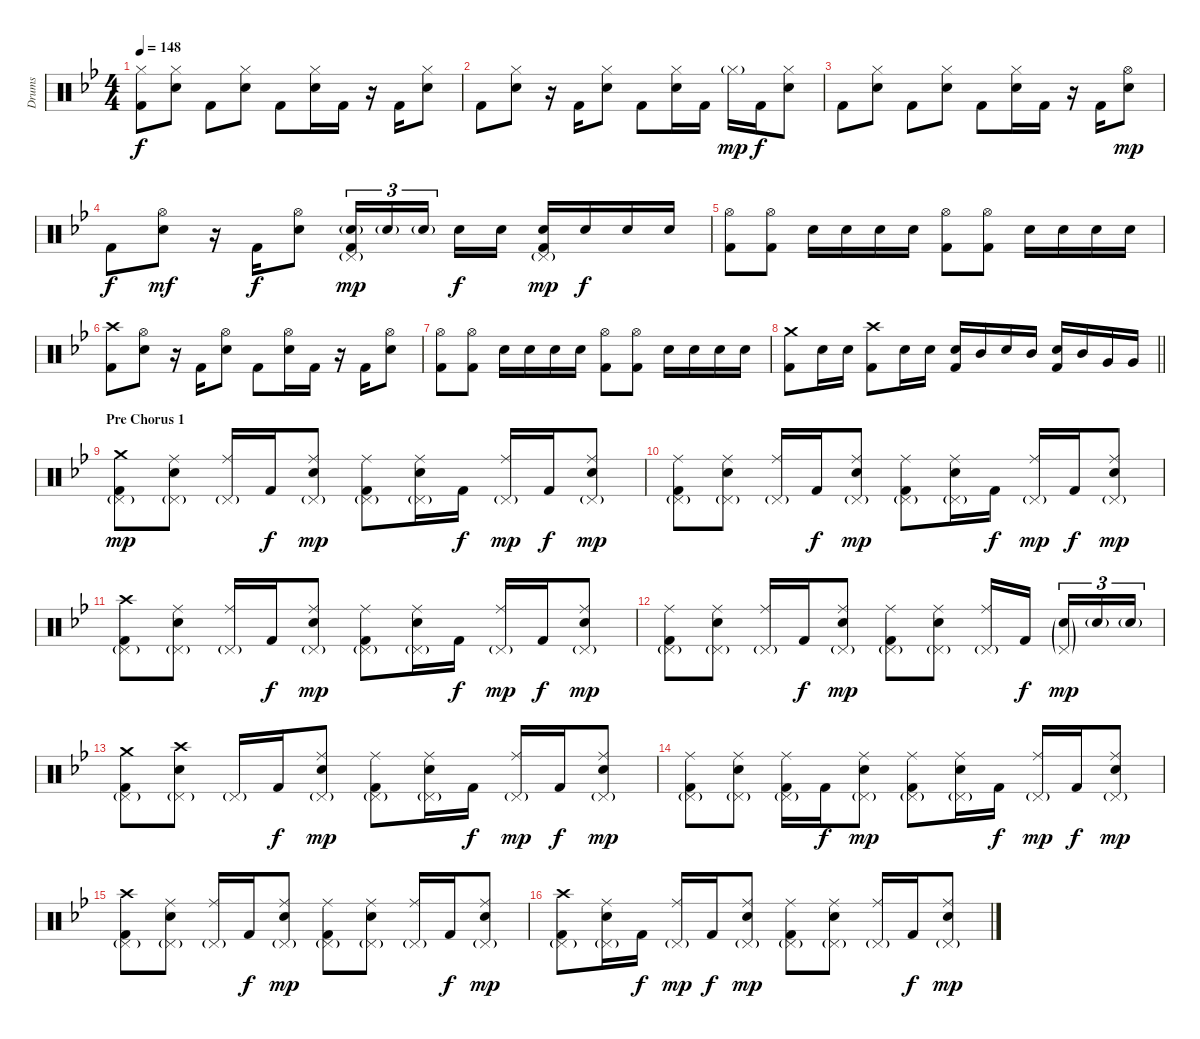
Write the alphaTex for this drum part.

\track ("Drums" "Drums") {instrument percussion}
\staff {score}
\articulation defaults
\ts (4 4)
\tempo 148
\clef neutral
\ks gminor
("Hi-Hat (closed)" "Kick (hit) 2").8{dy f} ("Hi-Hat (closed)" "Electric Snare (hit)").8 "Kick (hit) 2".8 ("Hi-Hat (closed)" "Electric Snare (hit)").8 "Kick (hit) 2".8 ("Hi-Hat (closed)" "Electric Snare (hit)").16 "Kick (hit) 2".16 r.16 "Kick (hit) 2".16 ("Hi-Hat (closed)" "Electric Snare (hit)").8 |
"Kick (hit) 2".8 ("Hi-Hat (closed)" "Electric Snare (hit)").8 r.16 "Kick (hit) 2".16 ("Hi-Hat (closed)" "Electric Snare (hit)").8 "Kick (hit) 2".8 ("Hi-Hat (closed)" "Electric Snare (hit)").16 "Kick (hit) 2".16 "Hi-Hat (closed)"{g}.16{dy mp} "Kick (hit) 2".16{dy f} ("Hi-Hat (closed)" "Electric Snare (hit)").8 |
"Kick (hit) 2".8 ("Hi-Hat (closed)" "Electric Snare (hit)").8 "Kick (hit) 2".8 ("Hi-Hat (closed)" "Electric Snare (hit)").8 "Kick (hit) 2".8 ("Hi-Hat (closed)" "Electric Snare (hit)").16 "Kick (hit) 2".16 r.16 "Kick (hit) 2".16 ("Hi-Hat (open)" "Electric Snare (hit)").8{dy mp} |
"Kick (hit) 2".8{dy f} ("Hi-Hat (open)" "Electric Snare (hit)").8{dy mf} r.16 "Kick (hit) 2".16{dy f} ("Hi-Hat (open)" "Electric Snare (hit)").8 ("Pedal Hi-Hat (hit)"{g} "Electric Snare (hit)"{g} "Kick (hit) 2").16{tu (3 2) dy mp} "Electric Snare (hit)"{g}.16{tu (3 2)} "Electric Snare (hit)"{g}.16{tu (3 2)} "Electric Snare (hit)".16{dy f} "Electric Snare (hit)".16 ("Pedal Hi-Hat (hit)"{g} "Electric Snare (hit)" "Kick (hit) 2").16{dy mp} "Electric Snare (hit)".16{dy f} "Electric Snare (hit)".16 "Electric Snare (hit)".16 |
("Hi-Hat (open)" "Kick (hit) 2").8 ("Hi-Hat (open)" "Kick (hit) 2").8 "Electric Snare (hit)".16 "Electric Snare (hit)".16 "Electric Snare (hit)".16 "Electric Snare (hit)".16 ("Hi-Hat (open)" "Kick (hit) 2").8 ("Hi-Hat (open)" "Kick (hit) 2").8 "Electric Snare (hit)".16 "Electric Snare (hit)".16 "Electric Snare (hit)".16 "Electric Snare (hit)".16 |
("Crash high (hit)" "Kick (hit) 2").8 ("Hi-Hat (open)" "Electric Snare (hit)").8 r.16 "Kick (hit) 2".16 ("Hi-Hat (open)" "Electric Snare (hit)").8 "Kick (hit) 2".8 ("Hi-Hat (open)" "Electric Snare (hit)").16 "Kick (hit) 2".16 r.16 "Kick (hit) 2".16 ("Hi-Hat (open)" "Electric Snare (hit)").8 |
("Hi-Hat (open)" "Kick (hit) 2").8 ("Hi-Hat (open)" "Kick (hit) 2").8 "Electric Snare (hit)".16 "Electric Snare (hit)".16 "Electric Snare (hit)".16 "Electric Snare (hit)".16 ("Hi-Hat (open)" "Kick (hit) 2").8 ("Hi-Hat (open)" "Kick (hit) 2").8 "Electric Snare (hit)".16 "Electric Snare (hit)".16 "Electric Snare (hit)".16 "Electric Snare (hit)".16 |
\barLineRight lightlight
("Crash medium (hit)" "Kick (hit) 2").8 "Electric Snare (hit)".16 "Electric Snare (hit)".16 ("Crash high (hit)" "Kick (hit) 2").8 "Electric Snare (hit)".16 "Electric Snare (hit)".16 ("Electric Snare (hit)" "Kick (hit) 2").16 "Mid Tom (hit)".16 "Electric Snare (hit)".16 "Mid Tom (hit)".16 ("Electric Snare (hit)" "Kick (hit) 2").16 "Mid Tom (hit)".16 "Very Low Tom (hit)".16 "Very Low Tom (hit)".16 |
\section ("" "Pre Chorus 1")
("Crash medium (hit)" "Pedal Hi-Hat (hit)"{g} "Kick (hit) 2").8{dy mp} ("Ride (middle)" "Pedal Hi-Hat (hit)"{g} "Electric Snare (hit)").8 ("Ride (middle)" "Pedal Hi-Hat (hit)"{g}).16 "Kick (hit) 2".16{dy f} ("Ride (middle)" "Pedal Hi-Hat (hit)"{g} "Electric Snare (hit)").8{dy mp} ("Ride (middle)" "Pedal Hi-Hat (hit)"{g} "Kick (hit) 2").8 ("Ride (middle)" "Pedal Hi-Hat (hit)"{g} "Electric Snare (hit)").16 "Kick (hit) 2".16{dy f} ("Ride (middle)" "Pedal Hi-Hat (hit)"{g}).16{dy mp} "Kick (hit) 2".16{dy f} ("Ride (middle)" "Pedal Hi-Hat (hit)"{g} "Electric Snare (hit)").8{dy mp} |
("Ride (middle)" "Pedal Hi-Hat (hit)"{g} "Kick (hit) 2").8 ("Ride (middle)" "Pedal Hi-Hat (hit)"{g} "Electric Snare (hit)").8 ("Ride (middle)" "Pedal Hi-Hat (hit)"{g}).16 "Kick (hit) 2".16{dy f} ("Ride (middle)" "Pedal Hi-Hat (hit)"{g} "Electric Snare (hit)").8{dy mp} ("Ride (middle)" "Pedal Hi-Hat (hit)"{g} "Kick (hit) 2").8 ("Ride (middle)" "Pedal Hi-Hat (hit)"{g} "Electric Snare (hit)").16 "Kick (hit) 2".16{dy f} ("Ride (middle)" "Pedal Hi-Hat (hit)"{g}).16{dy mp} "Kick (hit) 2".16{dy f} ("Ride (middle)" "Pedal Hi-Hat (hit)"{g} "Electric Snare (hit)").8{dy mp} |
("Crash high (hit)" "Pedal Hi-Hat (hit)"{g} "Kick (hit) 2").8 ("Ride (middle)" "Pedal Hi-Hat (hit)"{g} "Electric Snare (hit)").8 ("Ride (middle)" "Pedal Hi-Hat (hit)"{g}).16 "Kick (hit) 2".16{dy f} ("Ride (middle)" "Pedal Hi-Hat (hit)"{g} "Electric Snare (hit)").8{dy mp} ("Ride (middle)" "Pedal Hi-Hat (hit)"{g} "Kick (hit) 2").8 ("Ride (middle)" "Pedal Hi-Hat (hit)"{g} "Electric Snare (hit)").16 "Kick (hit) 2".16{dy f} ("Ride (middle)" "Pedal Hi-Hat (hit)"{g}).16{dy mp} "Kick (hit) 2".16{dy f} ("Ride (middle)" "Pedal Hi-Hat (hit)"{g} "Electric Snare (hit)").8{dy mp} |
("Ride (middle)" "Pedal Hi-Hat (hit)"{g} "Kick (hit) 2").8 ("Ride (middle)" "Pedal Hi-Hat (hit)"{g} "Electric Snare (hit)").8 ("Ride (middle)" "Pedal Hi-Hat (hit)"{g}).16 "Kick (hit) 2".16{dy f} ("Ride (middle)" "Pedal Hi-Hat (hit)"{g} "Electric Snare (hit)").8{dy mp} ("Ride (middle)" "Pedal Hi-Hat (hit)"{g} "Kick (hit) 2").8 ("Ride (middle)" "Pedal Hi-Hat (hit)"{g} "Electric Snare (hit)").8 ("Ride (middle)" "Pedal Hi-Hat (hit)"{g}).16 "Kick (hit) 2".16{dy f} ("Pedal Hi-Hat (hit)"{g} "Electric Snare (hit)"{g}).16{tu (3 2) dy mp} "Electric Snare (hit)"{g}.16{tu (3 2)} "Electric Snare (hit)"{g}.16{tu (3 2)} |
("Crash medium (hit)" "Pedal Hi-Hat (hit)"{g} "Kick (hit) 2").8 ("Crash high (hit)" "Pedal Hi-Hat (hit)"{g} "Electric Snare (hit)").8 "Pedal Hi-Hat (hit)"{g}.16 "Kick (hit) 2".16{dy f} ("Ride (middle)" "Pedal Hi-Hat (hit)"{g} "Electric Snare (hit)").8{dy mp} ("Ride (middle)" "Pedal Hi-Hat (hit)"{g} "Kick (hit) 2").8 ("Ride (middle)" "Pedal Hi-Hat (hit)"{g} "Electric Snare (hit)").16 "Kick (hit) 2".16{dy f} ("Ride (middle)" "Pedal Hi-Hat (hit)"{g}).16{dy mp} "Kick (hit) 2".16{dy f} ("Ride (middle)" "Pedal Hi-Hat (hit)"{g} "Electric Snare (hit)").8{dy mp} |
("Ride (middle)" "Pedal Hi-Hat (hit)"{g} "Kick (hit) 2").8 ("Ride (middle)" "Pedal Hi-Hat (hit)"{g} "Electric Snare (hit)").8 ("Ride (middle)" "Pedal Hi-Hat (hit)"{g} "Kick (hit) 2").16 "Kick (hit) 2".16{dy f} ("Ride (middle)" "Pedal Hi-Hat (hit)"{g} "Electric Snare (hit)").8{dy mp} ("Ride (middle)" "Pedal Hi-Hat (hit)"{g} "Kick (hit) 2").8 ("Ride (middle)" "Pedal Hi-Hat (hit)"{g} "Electric Snare (hit)").16 "Kick (hit) 2".16{dy f} ("Ride (middle)" "Pedal Hi-Hat (hit)"{g}).16{dy mp} "Kick (hit) 2".16{dy f} ("Ride (middle)" "Pedal Hi-Hat (hit)"{g} "Electric Snare (hit)").8{dy mp} |
("Crash high (hit)" "Pedal Hi-Hat (hit)"{g} "Kick (hit) 2").8 ("Ride (middle)" "Pedal Hi-Hat (hit)"{g} "Electric Snare (hit)").8 ("Ride (middle)" "Pedal Hi-Hat (hit)"{g}).16 "Kick (hit) 2".16{dy f} ("Ride (middle)" "Pedal Hi-Hat (hit)"{g} "Electric Snare (hit)").8{dy mp} ("Ride (middle)" "Pedal Hi-Hat (hit)"{g} "Kick (hit) 2").8 ("Ride (middle)" "Pedal Hi-Hat (hit)"{g} "Electric Snare (hit)").8 ("Ride (middle)" "Pedal Hi-Hat (hit)"{g}).16 "Kick (hit) 2".16{dy f} ("Ride (middle)" "Pedal Hi-Hat (hit)"{g} "Electric Snare (hit)").8{dy mp} |
("Crash high (hit)" "Pedal Hi-Hat (hit)"{g} "Kick (hit) 2").8 ("Ride (middle)" "Pedal Hi-Hat (hit)"{g} "Electric Snare (hit)").16 "Kick (hit) 2".16{dy f} ("Ride (middle)" "Pedal Hi-Hat (hit)"{g}).16{dy mp} "Kick (hit) 2".16{dy f} ("Ride (middle)" "Pedal Hi-Hat (hit)"{g} "Electric Snare (hit)").8{dy mp} ("Ride (middle)" "Pedal Hi-Hat (hit)"{g} "Kick (hit) 2").8 ("Ride (middle)" "Pedal Hi-Hat (hit)"{g} "Electric Snare (hit)").8 ("Ride (middle)" "Pedal Hi-Hat (hit)"{g}).16 "Kick (hit) 2".16{dy f} ("Ride (middle)" "Pedal Hi-Hat (hit)"{g} "Electric Snare (hit)").8{dy mp}
